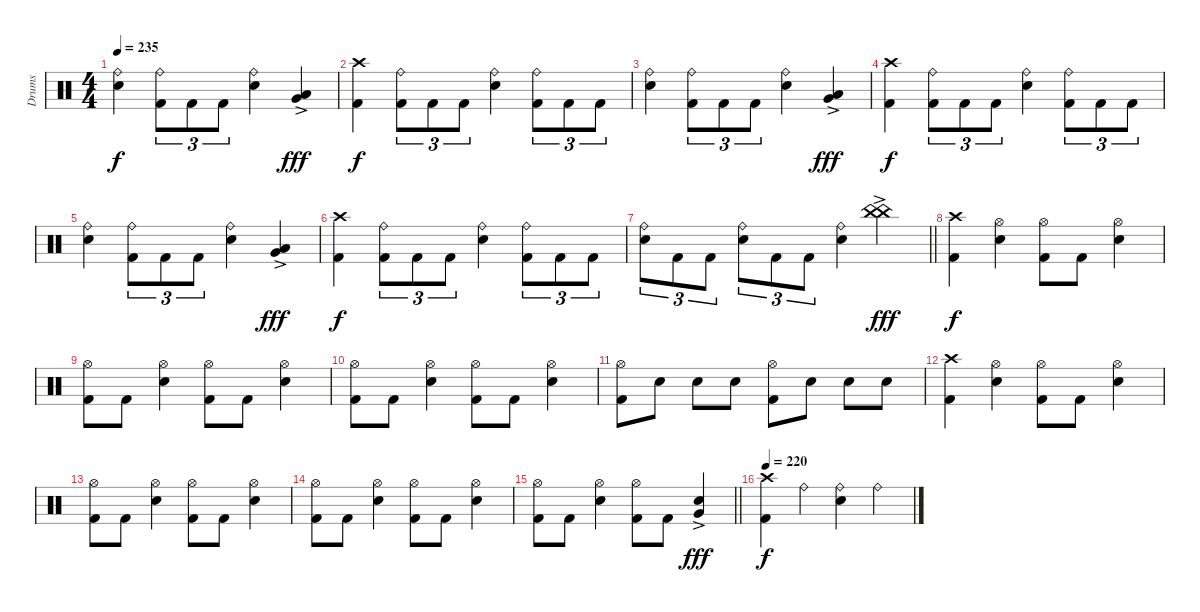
\track ("Drums" "Drums") {instrument percussion}
\staff {score}
\articulation defaults
\ts (4 4)
\tempo 235
\clef neutral
\ks c
("Ride (bell)" "Snare (hit) 2").4{dy f} ("Ride (bell)" "Kick (hit) 2").8{tu (3 2)} "Kick (hit) 2".8{tu (3 2)} "Kick (hit) 2".8{tu (3 2)} ("Ride (bell)" "Snare (hit) 2").4 ("Low Tom (hit)"{ac} "Very Low Tom (hit)"{ac}).4{dy fff} |
("Crash high (hit)" "Kick (hit) 2").4{dy f} ("Ride (bell)" "Kick (hit) 2").8{tu (3 2)} "Kick (hit) 2".8{tu (3 2)} "Kick (hit) 2".8{tu (3 2)} ("Ride (bell)" "Snare (hit) 2").4 ("Ride (bell)" "Kick (hit) 2").8{tu (3 2)} "Kick (hit) 2".8{tu (3 2)} "Kick (hit) 2".8{tu (3 2)} |
("Ride (bell)" "Snare (hit) 2").4 ("Ride (bell)" "Kick (hit) 2").8{tu (3 2)} "Kick (hit) 2".8{tu (3 2)} "Kick (hit) 2".8{tu (3 2)} ("Ride (bell)" "Snare (hit) 2").4 ("Low Tom (hit)"{ac} "Very Low Tom (hit)"{ac}).4{dy fff} |
("Crash high (hit)" "Kick (hit) 2").4{dy f} ("Ride (bell)" "Kick (hit) 2").8{tu (3 2)} "Kick (hit) 2".8{tu (3 2)} "Kick (hit) 2".8{tu (3 2)} ("Ride (bell)" "Snare (hit) 2").4 ("Ride (bell)" "Kick (hit) 2").8{tu (3 2)} "Kick (hit) 2".8{tu (3 2)} "Kick (hit) 2".8{tu (3 2)} |
("Ride (bell)" "Snare (hit) 2").4 ("Ride (bell)" "Kick (hit) 2").8{tu (3 2)} "Kick (hit) 2".8{tu (3 2)} "Kick (hit) 2".8{tu (3 2)} ("Ride (bell)" "Snare (hit) 2").4 ("Low Tom (hit)"{ac} "Very Low Tom (hit)"{ac}).4{dy fff} |
("Crash high (hit)" "Kick (hit) 2").4{dy f} ("Ride (bell)" "Kick (hit) 2").8{tu (3 2)} "Kick (hit) 2".8{tu (3 2)} "Kick (hit) 2".8{tu (3 2)} ("Ride (bell)" "Snare (hit) 2").4 ("Ride (bell)" "Kick (hit) 2").8{tu (3 2)} "Kick (hit) 2".8{tu (3 2)} "Kick (hit) 2".8{tu (3 2)} |
\barLineRight lightlight
("Ride (bell)" "Snare (hit) 2").8{tu (3 2)} "Kick (hit) 2".8{tu (3 2)} "Kick (hit) 2".8{tu (3 2)} ("Ride (bell)" "Snare (hit) 2").8{tu (3 2)} "Kick (hit) 2".8{tu (3 2)} "Kick (hit) 2".8{tu (3 2)} ("Ride (bell)" "Snare (hit) 2").4 ("China (hit)"{ac} "China (hit)"{ac}).4{dy fff} |
("Crash high (hit)" "Kick (hit) 2").4{dy f} ("Hi-Hat (open)" "Snare (hit) 2").4 ("Hi-Hat (open)" "Kick (hit) 2").8 "Kick (hit) 2".8 ("Hi-Hat (open)" "Snare (hit) 2").4 |
("Hi-Hat (open)" "Kick (hit) 2").8 "Kick (hit) 2".8 ("Hi-Hat (open)" "Snare (hit) 2").4 ("Hi-Hat (open)" "Kick (hit) 2").8 "Kick (hit) 2".8 ("Hi-Hat (open)" "Snare (hit) 2").4 |
("Hi-Hat (open)" "Kick (hit) 2").8 "Kick (hit) 2".8 ("Hi-Hat (open)" "Snare (hit) 2").4 ("Hi-Hat (open)" "Kick (hit) 2").8 "Kick (hit) 2".8 ("Hi-Hat (open)" "Snare (hit) 2").4 |
("Hi-Hat (open)" "Kick (hit) 2").8 "Snare (hit) 2".8 "Snare (hit) 2".8 "Snare (hit) 2".8 ("Hi-Hat (open)" "Kick (hit) 2").8 "Snare (hit) 2".8 "Snare (hit) 2".8 "Snare (hit) 2".8 |
("Crash high (hit)" "Kick (hit) 2").4 ("Hi-Hat (open)" "Snare (hit) 2").4 ("Hi-Hat (open)" "Kick (hit) 2").8 "Kick (hit) 2".8 ("Hi-Hat (open)" "Snare (hit) 2").4 |
("Hi-Hat (open)" "Kick (hit) 2").8 "Kick (hit) 2".8 ("Hi-Hat (open)" "Snare (hit) 2").4 ("Hi-Hat (open)" "Kick (hit) 2").8 "Kick (hit) 2".8 ("Hi-Hat (open)" "Snare (hit) 2").4 |
("Hi-Hat (open)" "Kick (hit) 2").8 "Kick (hit) 2".8 ("Hi-Hat (open)" "Snare (hit) 2").4 ("Hi-Hat (open)" "Kick (hit) 2").8 "Kick (hit) 2".8 ("Hi-Hat (open)" "Snare (hit) 2").4 |
\barLineRight lightlight
("Hi-Hat (open)" "Kick (hit) 2").8 "Kick (hit) 2".8 ("Hi-Hat (open)" "Snare (hit) 2").4 ("Hi-Hat (open)" "Kick (hit) 2").8 "Kick (hit) 2".8 ("Snare (hit) 2"{ac} "Very Low Tom (hit)"{ac}).4{dy fff} |
\tempo 220
("Crash high (hit)" "Kick (hit) 2").4{dy f} "Ride (bell)".4 ("Ride (bell)" "Snare (hit) 2").4 "Ride (bell)".4
